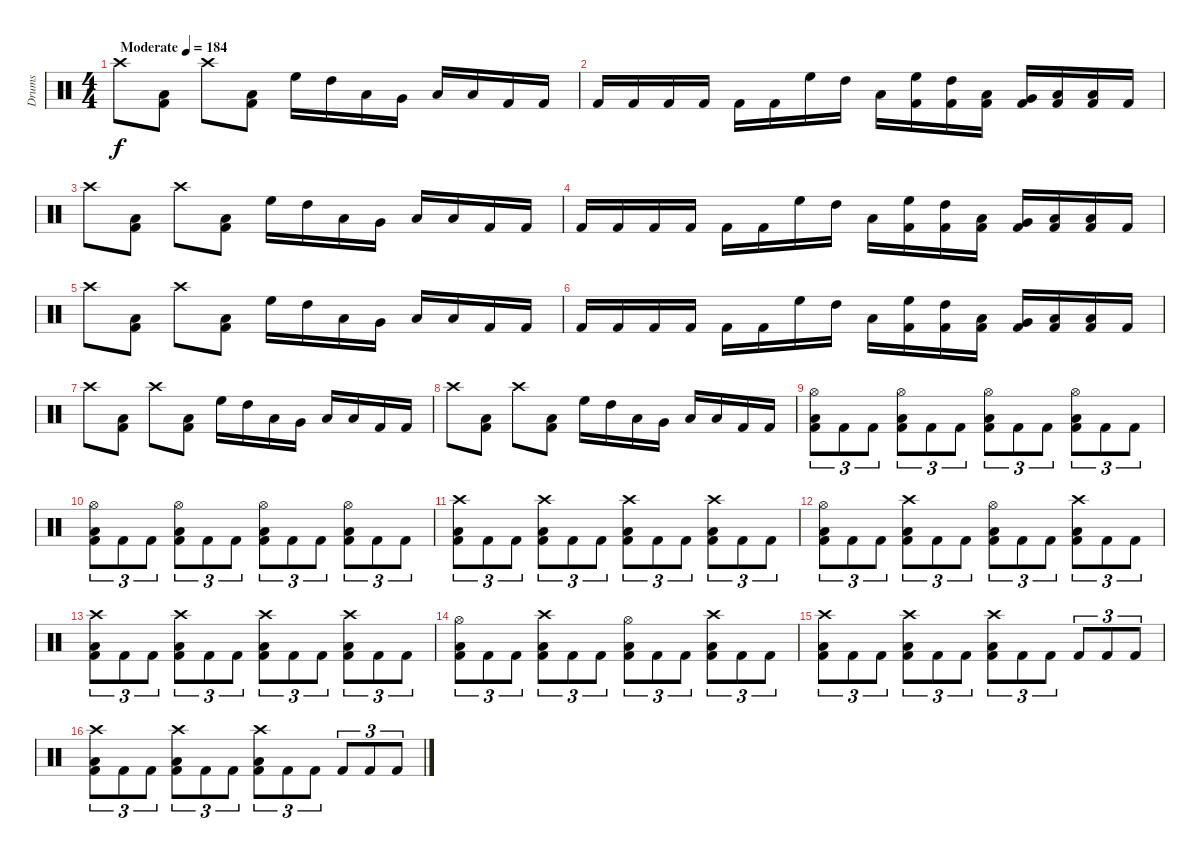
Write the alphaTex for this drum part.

\track ("Drums" "Drums") {instrument percussion}
\staff {score}
\articulation defaults
\ts (4 4)
\tempo (184 "Moderate")
\clef neutral
\ks c "Crash high (hit)".8{dy f}
("Low Floor Tom (hit)" "Kick (hit) 2").8 "Crash high (hit)".8 ("Low Floor Tom (hit)" "Kick (hit) 2").8 "High Floor Tom (hit)".16 "High Tom (hit)".16 "Low Tom (hit)".16 "Very Low Tom (hit)".16 "Low Floor Tom (hit)".16 "Low Floor Tom (hit)".16 "Kick (hit) 2".16 "Kick (hit) 2".16 |
"Kick (hit) 2".16 "Kick (hit) 2".16 "Kick (hit) 2".16 "Kick (hit) 2".16 "Kick (hit) 2".16 "Kick (hit) 2".16 "High Floor Tom (hit)".16 "High Tom (hit)".16 "Low Tom (hit)".16 ("High Floor Tom (hit)" "Kick (hit) 2").16 ("High Tom (hit)" "Kick (hit) 2").16 ("Low Tom (hit)" "Kick (hit) 2").16 ("Very Low Tom (hit)" "Kick (hit) 2").16 ("Low Floor Tom (hit)" "Kick (hit) 2").16 ("Low Floor Tom (hit)" "Kick (hit) 2").16 "Kick (hit) 2".16 |
"Crash high (hit)".8 ("Low Floor Tom (hit)" "Kick (hit) 2").8 "Crash high (hit)".8 ("Low Floor Tom (hit)" "Kick (hit) 2").8 "High Floor Tom (hit)".16 "High Tom (hit)".16 "Low Tom (hit)".16 "Very Low Tom (hit)".16 "Low Floor Tom (hit)".16 "Low Floor Tom (hit)".16 "Kick (hit) 2".16 "Kick (hit) 2".16 |
"Kick (hit) 2".16 "Kick (hit) 2".16 "Kick (hit) 2".16 "Kick (hit) 2".16 "Kick (hit) 2".16 "Kick (hit) 2".16 "High Floor Tom (hit)".16 "High Tom (hit)".16 "Low Tom (hit)".16 ("High Floor Tom (hit)" "Kick (hit) 2").16 ("High Tom (hit)" "Kick (hit) 2").16 ("Low Tom (hit)" "Kick (hit) 2").16 ("Very Low Tom (hit)" "Kick (hit) 2").16 ("Low Floor Tom (hit)" "Kick (hit) 2").16 ("Low Floor Tom (hit)" "Kick (hit) 2").16 "Kick (hit) 2".16 |
"Crash high (hit)".8 ("Low Floor Tom (hit)" "Kick (hit) 2").8 "Crash high (hit)".8 ("Low Floor Tom (hit)" "Kick (hit) 2").8 "High Floor Tom (hit)".16 "High Tom (hit)".16 "Low Tom (hit)".16 "Very Low Tom (hit)".16 "Low Floor Tom (hit)".16 "Low Floor Tom (hit)".16 "Kick (hit) 2".16 "Kick (hit) 2".16 |
"Kick (hit) 2".16 "Kick (hit) 2".16 "Kick (hit) 2".16 "Kick (hit) 2".16 "Kick (hit) 2".16 "Kick (hit) 2".16 "High Floor Tom (hit)".16 "High Tom (hit)".16 "Low Tom (hit)".16 ("High Floor Tom (hit)" "Kick (hit) 2").16 ("High Tom (hit)" "Kick (hit) 2").16 ("Low Tom (hit)" "Kick (hit) 2").16 ("Very Low Tom (hit)" "Kick (hit) 2").16 ("Low Floor Tom (hit)" "Kick (hit) 2").16 ("Low Floor Tom (hit)" "Kick (hit) 2").16 "Kick (hit) 2".16 |
"Crash high (hit)".8 ("Low Floor Tom (hit)" "Kick (hit) 2").8 "Crash high (hit)".8 ("Low Floor Tom (hit)" "Kick (hit) 2").8 "High Floor Tom (hit)".16 "High Tom (hit)".16 "Low Tom (hit)".16 "Very Low Tom (hit)".16 "Low Floor Tom (hit)".16 "Low Floor Tom (hit)".16 "Kick (hit) 2".16 "Kick (hit) 2".16 |
"Crash high (hit)".8 ("Low Floor Tom (hit)" "Kick (hit) 2").8 "Crash high (hit)".8 ("Low Floor Tom (hit)" "Kick (hit) 2").8 "High Floor Tom (hit)".16 "High Tom (hit)".16 "Low Tom (hit)".16 "Very Low Tom (hit)".16 "Low Floor Tom (hit)".16 "Low Floor Tom (hit)".16 "Kick (hit) 2".16 "Kick (hit) 2".16 |
("Kick (hit) 2" "Hi-Hat (open)" "Low Floor Tom (hit)").8{tu (3 2)} "Kick (hit) 2".8{tu (3 2)} "Kick (hit) 2".8{tu (3 2)} ("Hi-Hat (open)" "Low Floor Tom (hit)" "Kick (hit) 2").8{tu (3 2)} "Kick (hit) 2".8{tu (3 2)} "Kick (hit) 2".8{tu (3 2)} ("Kick (hit) 2" "Hi-Hat (open)" "Low Floor Tom (hit)").8{tu (3 2)} "Kick (hit) 2".8{tu (3 2)} "Kick (hit) 2".8{tu (3 2)} ("Hi-Hat (open)" "Low Floor Tom (hit)" "Kick (hit) 2").8{tu (3 2)} "Kick (hit) 2".8{tu (3 2)} "Kick (hit) 2".8{tu (3 2)} |
("Kick (hit) 2" "Hi-Hat (open)" "Low Floor Tom (hit)").8{tu (3 2)} "Kick (hit) 2".8{tu (3 2)} "Kick (hit) 2".8{tu (3 2)} ("Hi-Hat (open)" "Low Floor Tom (hit)" "Kick (hit) 2").8{tu (3 2)} "Kick (hit) 2".8{tu (3 2)} "Kick (hit) 2".8{tu (3 2)} ("Kick (hit) 2" "Hi-Hat (open)" "Low Floor Tom (hit)").8{tu (3 2)} "Kick (hit) 2".8{tu (3 2)} "Kick (hit) 2".8{tu (3 2)} ("Hi-Hat (open)" "Low Floor Tom (hit)" "Kick (hit) 2").8{tu (3 2)} "Kick (hit) 2".8{tu (3 2)} "Kick (hit) 2".8{tu (3 2)} |
("Kick (hit) 2" "Crash high (hit)" "Low Floor Tom (hit)").8{tu (3 2)} "Kick (hit) 2".8{tu (3 2)} "Kick (hit) 2".8{tu (3 2)} ("Crash high (hit)" "Low Floor Tom (hit)" "Kick (hit) 2").8{tu (3 2)} "Kick (hit) 2".8{tu (3 2)} "Kick (hit) 2".8{tu (3 2)} ("Kick (hit) 2" "Crash high (hit)" "Low Floor Tom (hit)").8{tu (3 2)} "Kick (hit) 2".8{tu (3 2)} "Kick (hit) 2".8{tu (3 2)} ("Crash high (hit)" "Low Floor Tom (hit)" "Kick (hit) 2").8{tu (3 2)} "Kick (hit) 2".8{tu (3 2)} "Kick (hit) 2".8{tu (3 2)} |
("Kick (hit) 2" "Hi-Hat (open)" "Low Floor Tom (hit)").8{tu (3 2)} "Kick (hit) 2".8{tu (3 2)} "Kick (hit) 2".8{tu (3 2)} ("Crash high (hit)" "Low Floor Tom (hit)" "Kick (hit) 2").8{tu (3 2)} "Kick (hit) 2".8{tu (3 2)} "Kick (hit) 2".8{tu (3 2)} ("Kick (hit) 2" "Hi-Hat (open)" "Low Floor Tom (hit)").8{tu (3 2)} "Kick (hit) 2".8{tu (3 2)} "Kick (hit) 2".8{tu (3 2)} ("Crash high (hit)" "Low Floor Tom (hit)" "Kick (hit) 2").8{tu (3 2)} "Kick (hit) 2".8{tu (3 2)} "Kick (hit) 2".8{tu (3 2)} |
("Kick (hit) 2" "Crash high (hit)" "Low Floor Tom (hit)").8{tu (3 2)} "Kick (hit) 2".8{tu (3 2)} "Kick (hit) 2".8{tu (3 2)} ("Crash high (hit)" "Low Floor Tom (hit)" "Kick (hit) 2").8{tu (3 2)} "Kick (hit) 2".8{tu (3 2)} "Kick (hit) 2".8{tu (3 2)} ("Kick (hit) 2" "Crash high (hit)" "Low Floor Tom (hit)").8{tu (3 2)} "Kick (hit) 2".8{tu (3 2)} "Kick (hit) 2".8{tu (3 2)} ("Crash high (hit)" "Low Floor Tom (hit)" "Kick (hit) 2").8{tu (3 2)} "Kick (hit) 2".8{tu (3 2)} "Kick (hit) 2".8{tu (3 2)} |
("Kick (hit) 2" "Hi-Hat (open)" "Low Floor Tom (hit)").8{tu (3 2)} "Kick (hit) 2".8{tu (3 2)} "Kick (hit) 2".8{tu (3 2)} ("Crash high (hit)" "Low Floor Tom (hit)" "Kick (hit) 2").8{tu (3 2)} "Kick (hit) 2".8{tu (3 2)} "Kick (hit) 2".8{tu (3 2)} ("Kick (hit) 2" "Hi-Hat (open)" "Low Floor Tom (hit)").8{tu (3 2)} "Kick (hit) 2".8{tu (3 2)} "Kick (hit) 2".8{tu (3 2)} ("Crash high (hit)" "Low Floor Tom (hit)" "Kick (hit) 2").8{tu (3 2)} "Kick (hit) 2".8{tu (3 2)} "Kick (hit) 2".8{tu (3 2)} |
("Kick (hit) 2" "Crash high (hit)" "Low Floor Tom (hit)").8{tu (3 2)} "Kick (hit) 2".8{tu (3 2)} "Kick (hit) 2".8{tu (3 2)} ("Crash high (hit)" "Low Floor Tom (hit)" "Kick (hit) 2").8{tu (3 2)} "Kick (hit) 2".8{tu (3 2)} "Kick (hit) 2".8{tu (3 2)} ("Kick (hit) 2" "Crash high (hit)" "Low Floor Tom (hit)").8{tu (3 2)} "Kick (hit) 2".8{tu (3 2)} "Kick (hit) 2".8{tu (3 2)} "Kick (hit) 2".8{tu (3 2)} "Kick (hit) 2".8{tu (3 2)} "Kick (hit) 2".8{tu (3 2)} |
("Kick (hit) 2" "Crash high (hit)" "Low Floor Tom (hit)").8{tu (3 2)} "Kick (hit) 2".8{tu (3 2)} "Kick (hit) 2".8{tu (3 2)} ("Crash high (hit)" "Low Floor Tom (hit)" "Kick (hit) 2").8{tu (3 2)} "Kick (hit) 2".8{tu (3 2)} "Kick (hit) 2".8{tu (3 2)} ("Kick (hit) 2" "Crash high (hit)" "Low Floor Tom (hit)").8{tu (3 2)} "Kick (hit) 2".8{tu (3 2)} "Kick (hit) 2".8{tu (3 2)} "Kick (hit) 2".8{tu (3 2)} "Kick (hit) 2".8{tu (3 2)} "Kick (hit) 2".8{tu (3 2)}
